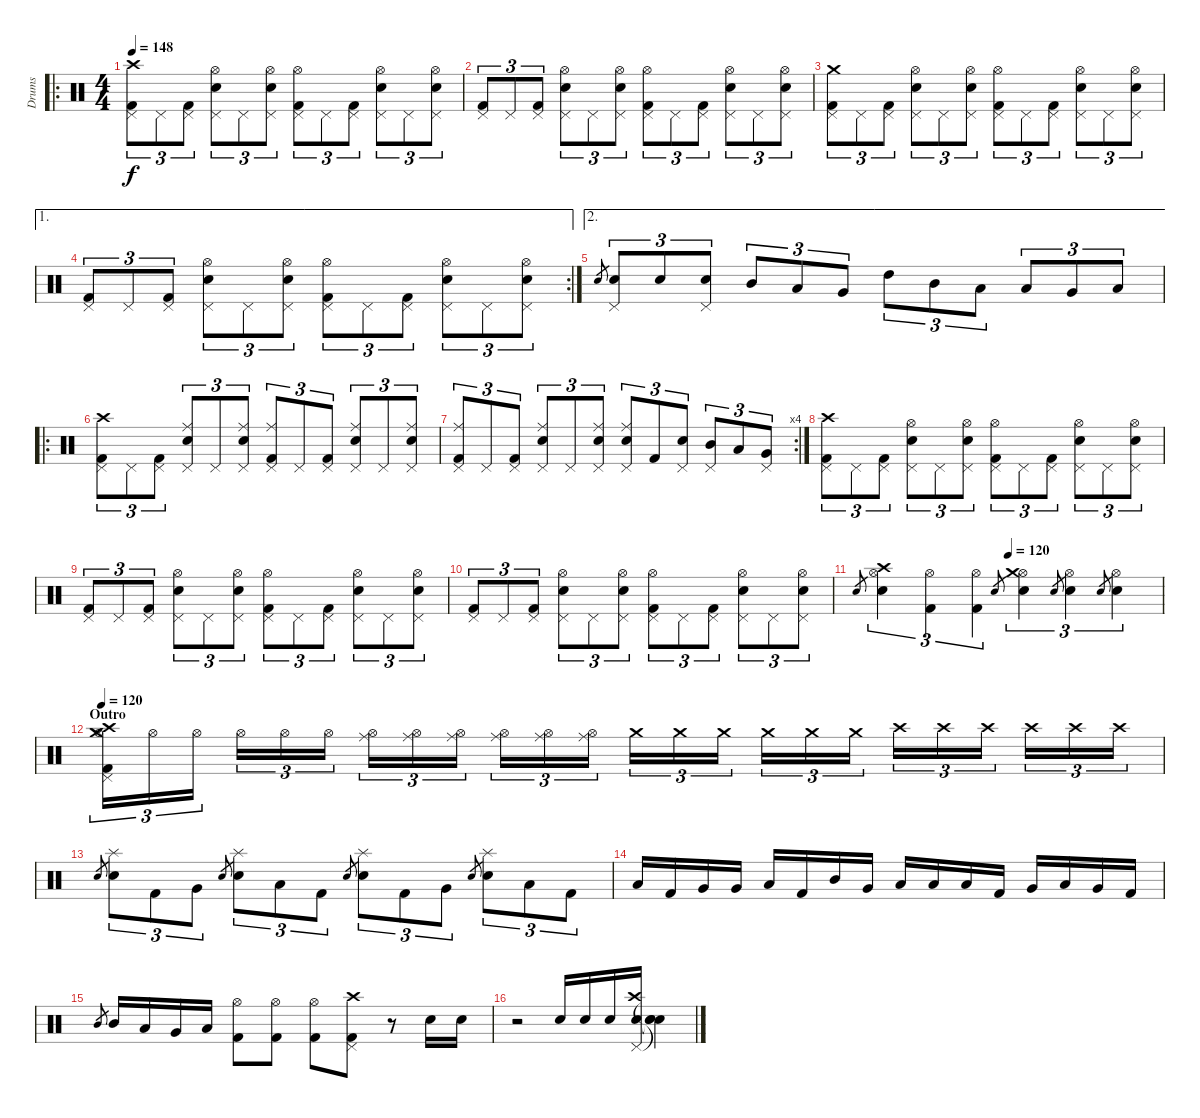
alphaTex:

\track ("Drums" "Drums") {instrument percussion}
\staff {score}
\articulation defaults
\ro
\ts (4 4)
\tempo 148
\clef neutral
\ks c
("Kick (hit) 2" "Pedal Hi-Hat (hit)" "Crash high (hit)").8{tu (3 2) dy f} "Pedal Hi-Hat (hit)".8{tu (3 2)} ("Kick (hit) 2" "Pedal Hi-Hat (hit)").8{tu (3 2)} ("Snare (hit) 2" "Pedal Hi-Hat (hit)" "Hi-Hat (open)").8{tu (3 2)} "Pedal Hi-Hat (hit)".8{tu (3 2)} ("Snare (hit) 2" "Pedal Hi-Hat (hit)" "Hi-Hat (open)").8{tu (3 2)} ("Kick (hit) 2" "Pedal Hi-Hat (hit)" "Hi-Hat (open)").8{tu (3 2)} "Pedal Hi-Hat (hit)".8{tu (3 2)} ("Kick (hit) 2" "Pedal Hi-Hat (hit)").8{tu (3 2)} ("Snare (hit) 2" "Pedal Hi-Hat (hit)" "Hi-Hat (open)").8{tu (3 2)} "Pedal Hi-Hat (hit)".8{tu (3 2)} ("Snare (hit) 2" "Pedal Hi-Hat (hit)" "Hi-Hat (open)").8{tu (3 2)} |
("Kick (hit) 2" "Pedal Hi-Hat (hit)").8{tu (3 2)} "Pedal Hi-Hat (hit)".8{tu (3 2)} ("Kick (hit) 2" "Pedal Hi-Hat (hit)").8{tu (3 2)} ("Snare (hit) 2" "Pedal Hi-Hat (hit)" "Hi-Hat (open)").8{tu (3 2)} "Pedal Hi-Hat (hit)".8{tu (3 2)} ("Snare (hit) 2" "Pedal Hi-Hat (hit)" "Hi-Hat (open)").8{tu (3 2)} ("Kick (hit) 2" "Pedal Hi-Hat (hit)" "Hi-Hat (open)").8{tu (3 2)} "Pedal Hi-Hat (hit)".8{tu (3 2)} ("Kick (hit) 2" "Pedal Hi-Hat (hit)").8{tu (3 2)} ("Snare (hit) 2" "Pedal Hi-Hat (hit)" "Hi-Hat (open)").8{tu (3 2)} "Pedal Hi-Hat (hit)".8{tu (3 2)} ("Snare (hit) 2" "Pedal Hi-Hat (hit)" "Hi-Hat (open)").8{tu (3 2)} |
("Kick (hit) 2" "Pedal Hi-Hat (hit)" "Crash medium (hit)").8{tu (3 2)} "Pedal Hi-Hat (hit)".8{tu (3 2)} ("Kick (hit) 2" "Pedal Hi-Hat (hit)").8{tu (3 2)} ("Snare (hit) 2" "Pedal Hi-Hat (hit)" "Hi-Hat (open)").8{tu (3 2)} "Pedal Hi-Hat (hit)".8{tu (3 2)} ("Snare (hit) 2" "Pedal Hi-Hat (hit)" "Hi-Hat (open)").8{tu (3 2)} ("Kick (hit) 2" "Pedal Hi-Hat (hit)" "Hi-Hat (open)").8{tu (3 2)} "Pedal Hi-Hat (hit)".8{tu (3 2)} ("Kick (hit) 2" "Pedal Hi-Hat (hit)").8{tu (3 2)} ("Snare (hit) 2" "Pedal Hi-Hat (hit)" "Hi-Hat (open)").8{tu (3 2)} "Pedal Hi-Hat (hit)".8{tu (3 2)} ("Snare (hit) 2" "Pedal Hi-Hat (hit)" "Hi-Hat (open)").8{tu (3 2)} |
\ae 1
\rc 2
("Kick (hit) 2" "Pedal Hi-Hat (hit)").8{tu (3 2)} "Pedal Hi-Hat (hit)".8{tu (3 2)} ("Kick (hit) 2" "Pedal Hi-Hat (hit)").8{tu (3 2)} ("Snare (hit) 2" "Pedal Hi-Hat (hit)" "Hi-Hat (open)").8{tu (3 2)} "Pedal Hi-Hat (hit)".8{tu (3 2)} ("Snare (hit) 2" "Pedal Hi-Hat (hit)" "Hi-Hat (open)").8{tu (3 2)} ("Kick (hit) 2" "Pedal Hi-Hat (hit)" "Hi-Hat (open)").8{tu (3 2)} "Pedal Hi-Hat (hit)".8{tu (3 2)} ("Kick (hit) 2" "Pedal Hi-Hat (hit)").8{tu (3 2)} ("Snare (hit) 2" "Pedal Hi-Hat (hit)" "Hi-Hat (open)").8{tu (3 2)} "Pedal Hi-Hat (hit)".8{tu (3 2)} ("Snare (hit) 2" "Pedal Hi-Hat (hit)" "Hi-Hat (open)").8{tu (3 2)} |
\ae 2 "Snare (hit) 2".8{gr}
("Snare (hit) 2" "Pedal Hi-Hat (hit)").8{tu (3 2)} "Snare (hit) 2".8{tu (3 2)} ("Snare (hit) 2" "Pedal Hi-Hat (hit)").8{tu (3 2)} "Mid Tom (hit)".8{tu (3 2)} "Low Tom (hit)".8{tu (3 2)} "Very Low Tom (hit)".8{tu (3 2)} "High Tom (hit)".8{tu (3 2)} "Mid Tom (hit)".8{tu (3 2)} "Low Tom (hit)".8{tu (3 2)} "Low Tom (hit)".8{tu (3 2)} "Very Low Tom (hit)".8{tu (3 2)} "Low Floor Tom (hit)".8{tu (3 2)} |
\ro
("Kick (hit) 2" "Pedal Hi-Hat (hit)" "Crash high (hit)").8{tu (3 2)} "Pedal Hi-Hat (hit)".8{tu (3 2)} ("Kick (hit) 2" "Pedal Hi-Hat (hit)").8{tu (3 2)} ("Snare (hit) 2" "Pedal Hi-Hat (hit)" "Ride (middle)").8{tu (3 2)} "Pedal Hi-Hat (hit)".8{tu (3 2)} ("Snare (hit) 2" "Pedal Hi-Hat (hit)" "Ride (middle)").8{tu (3 2)} ("Kick (hit) 2" "Pedal Hi-Hat (hit)" "Ride (middle)").8{tu (3 2)} "Pedal Hi-Hat (hit)".8{tu (3 2)} ("Kick (hit) 2" "Pedal Hi-Hat (hit)").8{tu (3 2)} ("Snare (hit) 2" "Pedal Hi-Hat (hit)" "Ride (middle)").8{tu (3 2)} "Pedal Hi-Hat (hit)".8{tu (3 2)} ("Snare (hit) 2" "Pedal Hi-Hat (hit)" "Ride (middle)").8{tu (3 2)} |
\rc 4
("Kick (hit) 2" "Pedal Hi-Hat (hit)" "Ride (middle)").8{tu (3 2)} "Pedal Hi-Hat (hit)".8{tu (3 2)} ("Kick (hit) 2" "Pedal Hi-Hat (hit)").8{tu (3 2)} ("Snare (hit) 2" "Pedal Hi-Hat (hit)" "Ride (middle)").8{tu (3 2)} "Pedal Hi-Hat (hit)".8{tu (3 2)} ("Snare (hit) 2" "Pedal Hi-Hat (hit)" "Ride (middle)").8{tu (3 2)} ("Snare (hit) 2" "Pedal Hi-Hat (hit)" "Ride (middle)").8{tu (3 2)} "Kick (hit) 2".8{tu (3 2)} ("Snare (hit) 2" "Pedal Hi-Hat (hit)").8{tu (3 2)} ("Mid Tom (hit)" "Pedal Hi-Hat (hit)").8{tu (3 2)} "Low Tom (hit)".8{tu (3 2)} ("Very Low Tom (hit)" "Pedal Hi-Hat (hit)").8{tu (3 2)} |
("Kick (hit) 2" "Pedal Hi-Hat (hit)" "Crash high (hit)").8{tu (3 2)} "Pedal Hi-Hat (hit)".8{tu (3 2)} ("Kick (hit) 2" "Pedal Hi-Hat (hit)").8{tu (3 2)} ("Snare (hit) 2" "Pedal Hi-Hat (hit)" "Hi-Hat (open)").8{tu (3 2)} "Pedal Hi-Hat (hit)".8{tu (3 2)} ("Snare (hit) 2" "Pedal Hi-Hat (hit)" "Hi-Hat (open)").8{tu (3 2)} ("Kick (hit) 2" "Pedal Hi-Hat (hit)" "Hi-Hat (open)").8{tu (3 2)} "Pedal Hi-Hat (hit)".8{tu (3 2)} ("Kick (hit) 2" "Pedal Hi-Hat (hit)").8{tu (3 2)} ("Snare (hit) 2" "Pedal Hi-Hat (hit)" "Hi-Hat (open)").8{tu (3 2)} "Pedal Hi-Hat (hit)".8{tu (3 2)} ("Snare (hit) 2" "Pedal Hi-Hat (hit)" "Hi-Hat (open)").8{tu (3 2)} |
("Kick (hit) 2" "Pedal Hi-Hat (hit)").8{tu (3 2)} "Pedal Hi-Hat (hit)".8{tu (3 2)} ("Kick (hit) 2" "Pedal Hi-Hat (hit)").8{tu (3 2)} ("Snare (hit) 2" "Pedal Hi-Hat (hit)" "Hi-Hat (open)").8{tu (3 2)} "Pedal Hi-Hat (hit)".8{tu (3 2)} ("Snare (hit) 2" "Pedal Hi-Hat (hit)" "Hi-Hat (open)").8{tu (3 2)} ("Kick (hit) 2" "Pedal Hi-Hat (hit)" "Hi-Hat (open)").8{tu (3 2)} "Pedal Hi-Hat (hit)".8{tu (3 2)} ("Kick (hit) 2" "Pedal Hi-Hat (hit)").8{tu (3 2)} ("Snare (hit) 2" "Pedal Hi-Hat (hit)" "Hi-Hat (open)").8{tu (3 2)} "Pedal Hi-Hat (hit)".8{tu (3 2)} ("Snare (hit) 2" "Pedal Hi-Hat (hit)" "Hi-Hat (open)").8{tu (3 2)} |
("Kick (hit) 2" "Pedal Hi-Hat (hit)").8{tu (3 2)} "Pedal Hi-Hat (hit)".8{tu (3 2)} ("Kick (hit) 2" "Pedal Hi-Hat (hit)").8{tu (3 2)} ("Snare (hit) 2" "Pedal Hi-Hat (hit)" "Hi-Hat (open)").8{tu (3 2)} "Pedal Hi-Hat (hit)".8{tu (3 2)} ("Snare (hit) 2" "Pedal Hi-Hat (hit)" "Hi-Hat (open)").8{tu (3 2)} ("Kick (hit) 2" "Pedal Hi-Hat (hit)" "Hi-Hat (open)").8{tu (3 2)} "Pedal Hi-Hat (hit)".8{tu (3 2)} ("Kick (hit) 2" "Pedal Hi-Hat (hit)").8{tu (3 2)} ("Snare (hit) 2" "Pedal Hi-Hat (hit)" "Hi-Hat (open)").8{tu (3 2)} "Pedal Hi-Hat (hit)".8{tu (3 2)} ("Snare (hit) 2" "Pedal Hi-Hat (hit)" "Hi-Hat (open)").8{tu (3 2)} |
\tempo (120 0.5)
"Snare (hit) 2".8{gr} ("Snare (hit) 2" "Hi-Hat (open)" "Crash high (hit)").4{tu (3 2)} ("Kick (hit) 2" "Hi-Hat (open)").4{tu (3 2)} ("Kick (hit) 2" "Hi-Hat (open)").4{tu (3 2)} "Snare (hit) 2".8{gr} ("Snare (hit) 2" "Hi-Hat (open)" "Crash medium (hit)").4{tu (3 2)} "Snare (hit) 2".8{gr} ("Snare (hit) 2" "Hi-Hat (open)").4{tu (3 2)} "Snare (hit) 2".8{gr} ("Snare (hit) 2" "Hi-Hat (open)").4{tu (3 2)} |
\section ("" "Outro")
\tempo 120
("Kick (hit) 2" "Pedal Hi-Hat (hit)" "Hi-Hat (open)" "Crash medium (hit)" "Crash high (hit)").16{tu (3 2)} "Hi-Hat (open)".16{tu (3 2)} "Hi-Hat (open)".16{tu (3 2)} "Hi-Hat (open)".16{tu (3 2)} "Hi-Hat (open)".16{tu (3 2)} "Hi-Hat (open)".16{tu (3 2)} ("Hi-Hat (open)" "Ride (middle)").16{tu (3 2)} ("Hi-Hat (open)" "Ride (middle)").16{tu (3 2)} ("Hi-Hat (open)" "Ride (middle)").16{tu (3 2)} ("Hi-Hat (open)" "Ride (middle)").16{tu (3 2)} ("Hi-Hat (open)" "Ride (middle)").16{tu (3 2)} ("Hi-Hat (open)" "Ride (middle)").16{tu (3 2)} "Crash medium (hit)".16{tu (3 2)} "Crash medium (hit)".16{tu (3 2)} "Crash medium (hit)".16{tu (3 2)} "Crash medium (hit)".16{tu (3 2)} "Crash medium (hit)".16{tu (3 2)} "Crash medium (hit)".16{tu (3 2)} "Crash high (hit)".16{tu (3 2)} "Crash high (hit)".16{tu (3 2)} "Crash high (hit)".16{tu (3 2)} "Crash high (hit)".16{tu (3 2)} "Crash high (hit)".16{tu (3 2)} "Crash high (hit)".16{tu (3 2)} |
"Snare (hit) 2".8{gr} ("Snare (hit) 2" "Splash (hit)").8{tu (3 2)} "Kick (hit) 2".8{tu (3 2)} "Very Low Tom (hit)".8{tu (3 2)} "Snare (hit) 2".8{gr} ("Snare (hit) 2" "Splash (hit)").8{tu (3 2)} "Low Floor Tom (hit)".8{tu (3 2)} "Kick (hit) 2".8{tu (3 2)} "Snare (hit) 2".8{gr} ("Snare (hit) 2" "Splash (hit)").8{tu (3 2)} "Kick (hit) 2".8{tu (3 2)} "Very Low Tom (hit)".8{tu (3 2)} "Snare (hit) 2".8{gr} ("Snare (hit) 2" "Splash (hit)").8{tu (3 2)} "Low Floor Tom (hit)".8{tu (3 2)} "Kick (hit) 2".8{tu (3 2)} |
"Low Tom (hit)".16 "Kick (hit) 2".16 "Very Low Tom (hit)".16 "Very Low Tom (hit)".16 "Low Floor Tom (hit)".16 "Kick (hit) 2".16 "Mid Tom (hit)".16 "Very Low Tom (hit)".16 "Low Floor Tom (hit)".16 "Low Floor Tom (hit)".16 "Low Floor Tom (hit)".16 "Kick (hit) 2".16 "Very Low Tom (hit)".16 "Low Floor Tom (hit)".16 "Very Low Tom (hit)".16 "Kick (hit) 2".16 |
"Mid Tom (hit)".8{gr} "Mid Tom (hit)".16 "Low Tom (hit)".16 "Very Low Tom (hit)".16 "Low Floor Tom (hit)".16 ("Kick (hit) 2" "Hi-Hat (open)").8 ("Kick (hit) 2" "Hi-Hat (open)").8 ("Kick (hit) 2" "Hi-Hat (open)").8 ("Kick (hit) 2" "Pedal Hi-Hat (hit)" "Crash high (hit)").8 r.8 "Snare (hit) 2".16 "Snare (hit) 2".16 |
r.2 "Snare (hit) 2".16 "Snare (hit) 2".16 "Snare (hit) 2".16 ("Snare (hit) 2" "Pedal Hi-Hat (hit)" "Crash high (hit)").16 ("Snare (hit)"{t} "Snare (hit)"{t} "Snare (hit)"{t}).4
